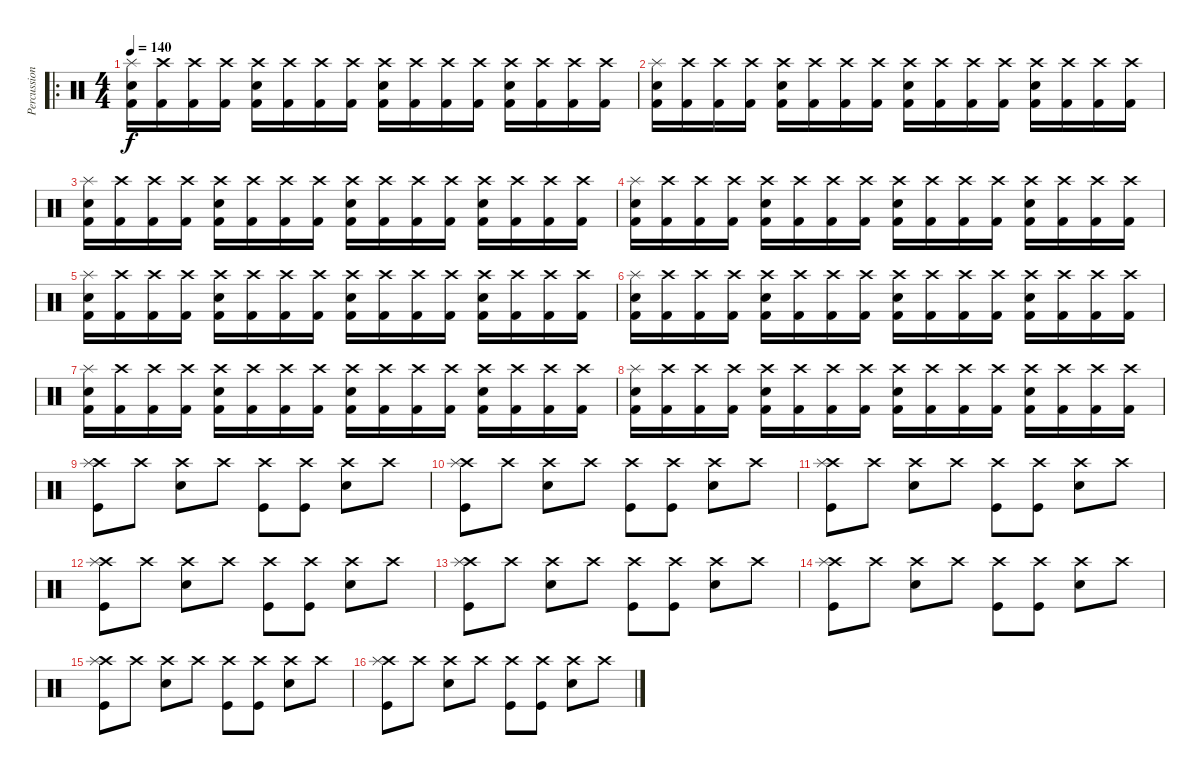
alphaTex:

\track ("Percussion" "Percussion") {instrument percussion}
\staff {score}
\articulation defaults
\ro
\ts (4 4)
\tempo 140
\clef neutral
\ks c
("Snare (hit) 2" "Splash (hit)" "Kick (hit) 2").16{dy f} ("Crash high (hit)" "Kick (hit) 2").16 ("Crash high (hit)" "Kick (hit) 2").16 ("Crash high (hit)" "Kick (hit) 2").16 ("Crash high (hit)" "Snare (hit) 2" "Kick (hit) 2").16 ("Crash high (hit)" "Kick (hit) 2").16 ("Crash high (hit)" "Kick (hit) 2").16 ("Crash high (hit)" "Kick (hit) 2").16 ("Crash high (hit)" "Snare (hit) 2" "Kick (hit) 2").16 ("Crash high (hit)" "Kick (hit) 2").16 ("Crash high (hit)" "Kick (hit) 2").16 ("Crash high (hit)" "Kick (hit) 2").16 ("Crash high (hit)" "Snare (hit) 2" "Kick (hit) 2").16 ("Crash high (hit)" "Kick (hit) 2").16 ("Crash high (hit)" "Kick (hit) 2").16 ("Crash high (hit)" "Kick (hit) 2").16 |
("Snare (hit) 2" "Splash (hit)" "Kick (hit) 2").16 ("Crash high (hit)" "Kick (hit) 2").16 ("Crash high (hit)" "Kick (hit) 2").16 ("Crash high (hit)" "Kick (hit) 2").16 ("Crash high (hit)" "Snare (hit) 2" "Kick (hit) 2").16 ("Crash high (hit)" "Kick (hit) 2").16 ("Crash high (hit)" "Kick (hit) 2").16 ("Crash high (hit)" "Kick (hit) 2").16 ("Crash high (hit)" "Snare (hit) 2" "Kick (hit) 2").16 ("Crash high (hit)" "Kick (hit) 2").16 ("Crash high (hit)" "Kick (hit) 2").16 ("Crash high (hit)" "Kick (hit) 2").16 ("Crash high (hit)" "Snare (hit) 2" "Kick (hit) 2").16 ("Crash high (hit)" "Kick (hit) 2").16 ("Crash high (hit)" "Kick (hit) 2").16 ("Crash high (hit)" "Kick (hit) 2").16 |
("Snare (hit) 2" "Splash (hit)" "Kick (hit) 2").16 ("Crash high (hit)" "Kick (hit) 2").16 ("Crash high (hit)" "Kick (hit) 2").16 ("Crash high (hit)" "Kick (hit) 2").16 ("Crash high (hit)" "Snare (hit) 2" "Kick (hit) 2").16 ("Crash high (hit)" "Kick (hit) 2").16 ("Crash high (hit)" "Kick (hit) 2").16 ("Crash high (hit)" "Kick (hit) 2").16 ("Crash high (hit)" "Snare (hit) 2" "Kick (hit) 2").16 ("Crash high (hit)" "Kick (hit) 2").16 ("Crash high (hit)" "Kick (hit) 2").16 ("Crash high (hit)" "Kick (hit) 2").16 ("Crash high (hit)" "Snare (hit) 2" "Kick (hit) 2").16 ("Crash high (hit)" "Kick (hit) 2").16 ("Crash high (hit)" "Kick (hit) 2").16 ("Crash high (hit)" "Kick (hit) 2").16 |
("Snare (hit) 2" "Splash (hit)" "Kick (hit) 2").16 ("Crash high (hit)" "Kick (hit) 2").16 ("Crash high (hit)" "Kick (hit) 2").16 ("Crash high (hit)" "Kick (hit) 2").16 ("Crash high (hit)" "Snare (hit) 2" "Kick (hit) 2").16 ("Crash high (hit)" "Kick (hit) 2").16 ("Crash high (hit)" "Kick (hit) 2").16 ("Crash high (hit)" "Kick (hit) 2").16 ("Crash high (hit)" "Snare (hit) 2" "Kick (hit) 2").16 ("Crash high (hit)" "Kick (hit) 2").16 ("Crash high (hit)" "Kick (hit) 2").16 ("Crash high (hit)" "Kick (hit) 2").16 ("Crash high (hit)" "Snare (hit) 2" "Kick (hit) 2").16 ("Crash high (hit)" "Kick (hit) 2").16 ("Crash high (hit)" "Kick (hit) 2").16 ("Crash high (hit)" "Kick (hit) 2").16 |
("Snare (hit) 2" "Splash (hit)" "Kick (hit) 2").16 ("Crash high (hit)" "Kick (hit) 2").16 ("Crash high (hit)" "Kick (hit) 2").16 ("Crash high (hit)" "Kick (hit) 2").16 ("Crash high (hit)" "Snare (hit) 2" "Kick (hit) 2").16 ("Crash high (hit)" "Kick (hit) 2").16 ("Crash high (hit)" "Kick (hit) 2").16 ("Crash high (hit)" "Kick (hit) 2").16 ("Crash high (hit)" "Snare (hit) 2" "Kick (hit) 2").16 ("Crash high (hit)" "Kick (hit) 2").16 ("Crash high (hit)" "Kick (hit) 2").16 ("Crash high (hit)" "Kick (hit) 2").16 ("Crash high (hit)" "Snare (hit) 2" "Kick (hit) 2").16 ("Crash high (hit)" "Kick (hit) 2").16 ("Crash high (hit)" "Kick (hit) 2").16 ("Crash high (hit)" "Kick (hit) 2").16 |
("Snare (hit) 2" "Splash (hit)" "Kick (hit) 2").16 ("Crash high (hit)" "Kick (hit) 2").16 ("Crash high (hit)" "Kick (hit) 2").16 ("Crash high (hit)" "Kick (hit) 2").16 ("Crash high (hit)" "Snare (hit) 2" "Kick (hit) 2").16 ("Crash high (hit)" "Kick (hit) 2").16 ("Crash high (hit)" "Kick (hit) 2").16 ("Crash high (hit)" "Kick (hit) 2").16 ("Crash high (hit)" "Snare (hit) 2" "Kick (hit) 2").16 ("Crash high (hit)" "Kick (hit) 2").16 ("Crash high (hit)" "Kick (hit) 2").16 ("Crash high (hit)" "Kick (hit) 2").16 ("Crash high (hit)" "Snare (hit) 2" "Kick (hit) 2").16 ("Crash high (hit)" "Kick (hit) 2").16 ("Crash high (hit)" "Kick (hit) 2").16 ("Crash high (hit)" "Kick (hit) 2").16 |
("Snare (hit) 2" "Splash (hit)" "Kick (hit) 2").16 ("Crash high (hit)" "Kick (hit) 2").16 ("Crash high (hit)" "Kick (hit) 2").16 ("Crash high (hit)" "Kick (hit) 2").16 ("Crash high (hit)" "Snare (hit) 2" "Kick (hit) 2").16 ("Crash high (hit)" "Kick (hit) 2").16 ("Crash high (hit)" "Kick (hit) 2").16 ("Crash high (hit)" "Kick (hit) 2").16 ("Crash high (hit)" "Snare (hit) 2" "Kick (hit) 2").16 ("Crash high (hit)" "Kick (hit) 2").16 ("Crash high (hit)" "Kick (hit) 2").16 ("Crash high (hit)" "Kick (hit) 2").16 ("Crash high (hit)" "Snare (hit) 2" "Kick (hit) 2").16 ("Crash high (hit)" "Kick (hit) 2").16 ("Crash high (hit)" "Kick (hit) 2").16 ("Crash high (hit)" "Kick (hit) 2").16 |
("Snare (hit) 2" "Splash (hit)" "Kick (hit) 2").16 ("Crash high (hit)" "Kick (hit) 2").16 ("Crash high (hit)" "Kick (hit) 2").16 ("Crash high (hit)" "Kick (hit) 2").16 ("Crash high (hit)" "Snare (hit) 2" "Kick (hit) 2").16 ("Crash high (hit)" "Kick (hit) 2").16 ("Crash high (hit)" "Kick (hit) 2").16 ("Crash high (hit)" "Kick (hit) 2").16 ("Crash high (hit)" "Snare (hit) 2" "Kick (hit) 2").16 ("Crash high (hit)" "Kick (hit) 2").16 ("Crash high (hit)" "Kick (hit) 2").16 ("Crash high (hit)" "Kick (hit) 2").16 ("Crash high (hit)" "Snare (hit) 2" "Kick (hit) 2").16 ("Crash high (hit)" "Kick (hit) 2").16 ("Crash high (hit)" "Kick (hit) 2").16 ("Crash high (hit)" "Kick (hit) 2").16 |
("Crash high (hit)" "Kick (hit)" "Splash (hit)").8 "Crash high (hit)".8 ("Crash high (hit)" "Snare (hit) 2").8 "Crash high (hit)".8 ("Crash high (hit)" "Kick (hit)").8 ("Crash high (hit)" "Kick (hit)").8 ("Crash high (hit)" "Snare (hit) 2").8 "Crash high (hit)".8 |
("Crash high (hit)" "Kick (hit)" "Splash (hit)").8 "Crash high (hit)".8 ("Crash high (hit)" "Snare (hit) 2").8 "Crash high (hit)".8 ("Crash high (hit)" "Kick (hit)").8 ("Crash high (hit)" "Kick (hit)").8 ("Crash high (hit)" "Snare (hit) 2").8 "Crash high (hit)".8 |
("Crash high (hit)" "Kick (hit)" "Splash (hit)").8 "Crash high (hit)".8 ("Crash high (hit)" "Snare (hit) 2").8 "Crash high (hit)".8 ("Crash high (hit)" "Kick (hit)").8 ("Crash high (hit)" "Kick (hit)").8 ("Crash high (hit)" "Snare (hit) 2").8 "Crash high (hit)".8 |
("Crash high (hit)" "Kick (hit)" "Splash (hit)").8 "Crash high (hit)".8 ("Crash high (hit)" "Snare (hit) 2").8 "Crash high (hit)".8 ("Crash high (hit)" "Kick (hit)").8 ("Crash high (hit)" "Kick (hit)").8 ("Crash high (hit)" "Snare (hit) 2").8 "Crash high (hit)".8 |
("Crash high (hit)" "Kick (hit)" "Splash (hit)").8 "Crash high (hit)".8 ("Crash high (hit)" "Snare (hit) 2").8 "Crash high (hit)".8 ("Crash high (hit)" "Kick (hit)").8 ("Crash high (hit)" "Kick (hit)").8 ("Crash high (hit)" "Snare (hit) 2").8 "Crash high (hit)".8 |
("Crash high (hit)" "Kick (hit)" "Splash (hit)").8 "Crash high (hit)".8 ("Crash high (hit)" "Snare (hit) 2").8 "Crash high (hit)".8 ("Crash high (hit)" "Kick (hit)").8 ("Crash high (hit)" "Kick (hit)").8 ("Crash high (hit)" "Snare (hit) 2").8 "Crash high (hit)".8 |
("Crash high (hit)" "Kick (hit)" "Splash (hit)").8 "Crash high (hit)".8 ("Crash high (hit)" "Snare (hit) 2").8 "Crash high (hit)".8 ("Crash high (hit)" "Kick (hit)").8 ("Crash high (hit)" "Kick (hit)").8 ("Crash high (hit)" "Snare (hit) 2").8 "Crash high (hit)".8 |
("Crash high (hit)" "Kick (hit)" "Splash (hit)").8 "Crash high (hit)".8 ("Crash high (hit)" "Snare (hit) 2").8 "Crash high (hit)".8 ("Crash high (hit)" "Kick (hit)").8 ("Crash high (hit)" "Kick (hit)").8 ("Crash high (hit)" "Snare (hit) 2").8 "Crash high (hit)".8
